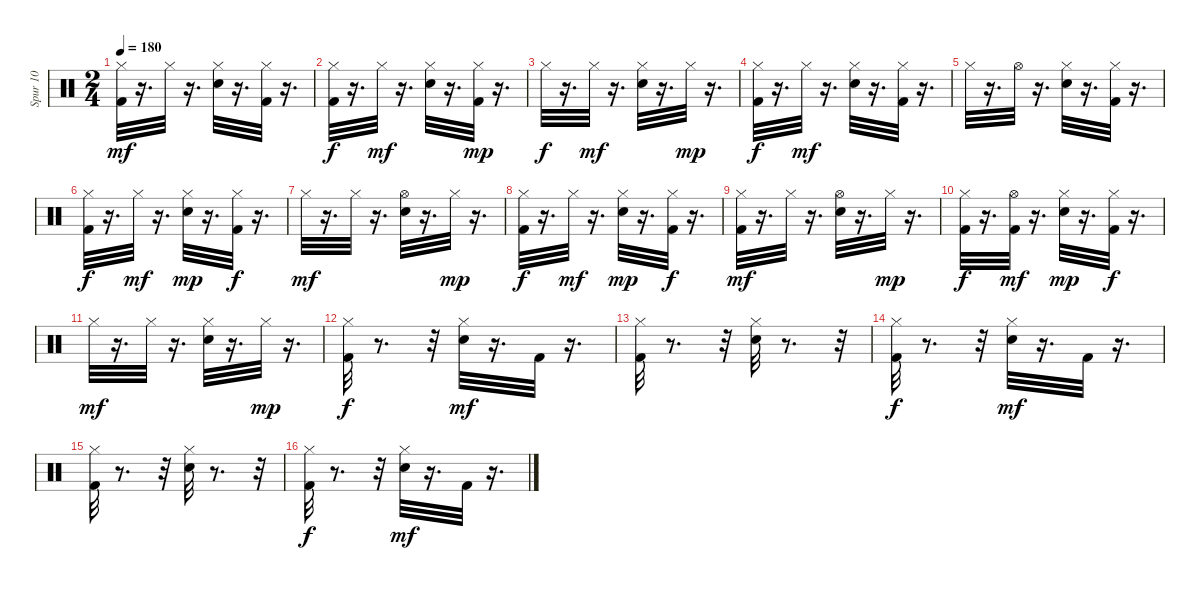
\track ("Spur 10" "Spur 10") {instrument percussion}
\staff {score}
\articulation defaults
\ts (2 4)
\tempo 180
\clef neutral
\ks c
("Hi-Hat (closed)" "Kick (hit) 2").32{dy mf} r.16{d} "Hi-Hat (closed)".32 r.16{d} ("Electric Snare (hit)" "Hi-Hat (closed)").32 r.16{d} ("Hi-Hat (closed)" "Kick (hit) 2").32 r.16{d} |
("Hi-Hat (closed)" "Kick (hit) 2").32{dy f} r.16{d} "Hi-Hat (closed)".32{dy mf} r.16{d} ("Electric Snare (hit)" "Hi-Hat (closed)").32 r.16{d} ("Hi-Hat (closed)" "Kick (hit) 2").32{dy mp} r.16{d} |
"Hi-Hat (closed)".32{dy f} r.16{d} "Hi-Hat (closed)".32{dy mf} r.16{d} ("Electric Snare (hit)" "Hi-Hat (closed)").32 r.16{d} "Hi-Hat (closed)".32{dy mp} r.16{d} |
("Hi-Hat (closed)" "Kick (hit) 2").32{dy f} r.16{d} "Hi-Hat (closed)".32{dy mf} r.16{d} ("Electric Snare (hit)" "Hi-Hat (closed)").32 r.16{d} ("Hi-Hat (closed)" "Kick (hit) 2").32 r.16{d} |
"Hi-Hat (closed)".32 r.16{d} "Hi-Hat (open)".32 r.16{d} ("Electric Snare (hit)" "Hi-Hat (closed)").32 r.16{d} ("Hi-Hat (closed)" "Kick (hit) 2").32 r.16{d} |
("Hi-Hat (closed)" "Kick (hit) 2").32{dy f} r.16{d} "Hi-Hat (closed)".32{dy mf} r.16{d} ("Electric Snare (hit)" "Hi-Hat (closed)").32{dy mp} r.16{d} ("Hi-Hat (closed)" "Kick (hit) 2").32{dy f} r.16{d} |
"Hi-Hat (closed)".32{dy mf} r.16{d} "Hi-Hat (closed)".32 r.16{d} ("Electric Snare (hit)" "Hi-Hat (open)").32 r.16{d} "Hi-Hat (closed)".32{dy mp} r.16{d} |
("Hi-Hat (closed)" "Kick (hit) 2").32{dy f} r.16{d} "Hi-Hat (closed)".32{dy mf} r.16{d} ("Electric Snare (hit)" "Hi-Hat (closed)").32{dy mp} r.16{d} ("Hi-Hat (closed)" "Kick (hit) 2").32{dy f} r.16{d} |
("Hi-Hat (closed)" "Kick (hit) 2").32{dy mf} r.16{d} "Hi-Hat (closed)".32 r.16{d} ("Electric Snare (hit)" "Hi-Hat (open)").32 r.16{d} "Hi-Hat (closed)".32{dy mp} r.16{d} |
("Hi-Hat (closed)" "Kick (hit) 2").32{dy f} r.16{d} ("Hi-Hat (open)" "Kick (hit) 2").32{dy mf} r.16{d} ("Electric Snare (hit)" "Hi-Hat (closed)").32{dy mp} r.16{d} ("Hi-Hat (closed)" "Kick (hit) 2").32{dy f} r.16{d} |
"Hi-Hat (closed)".32{dy mf} r.16{d} "Hi-Hat (closed)".32 r.16{d} ("Electric Snare (hit)" "Hi-Hat (closed)").32 r.16{d} "Hi-Hat (closed)".32{dy mp} r.16{d} |
("Hi-Hat (closed)" "Kick (hit) 2").32{dy f} r.8{d} r.32 ("Electric Snare (hit)" "Hi-Hat (closed)").32{dy mf} r.16{d} "Kick (hit) 2".32 r.16{d} |
("Hi-Hat (closed)" "Kick (hit) 2").32 r.8{d} r.32 ("Electric Snare (hit)" "Hi-Hat (closed)").32 r.8{d} r.32 |
("Hi-Hat (closed)" "Kick (hit) 2").32{dy f} r.8{d} r.32 ("Electric Snare (hit)" "Hi-Hat (closed)").32{dy mf} r.16{d} "Kick (hit) 2".32 r.16{d} |
("Hi-Hat (closed)" "Kick (hit) 2").32 r.8{d} r.32 ("Electric Snare (hit)" "Hi-Hat (closed)").32 r.8{d} r.32 |
("Hi-Hat (closed)" "Kick (hit) 2").32{dy f} r.8{d} r.32 ("Electric Snare (hit)" "Hi-Hat (closed)").32{dy mf} r.16{d} "Kick (hit) 2".32 r.16{d}
